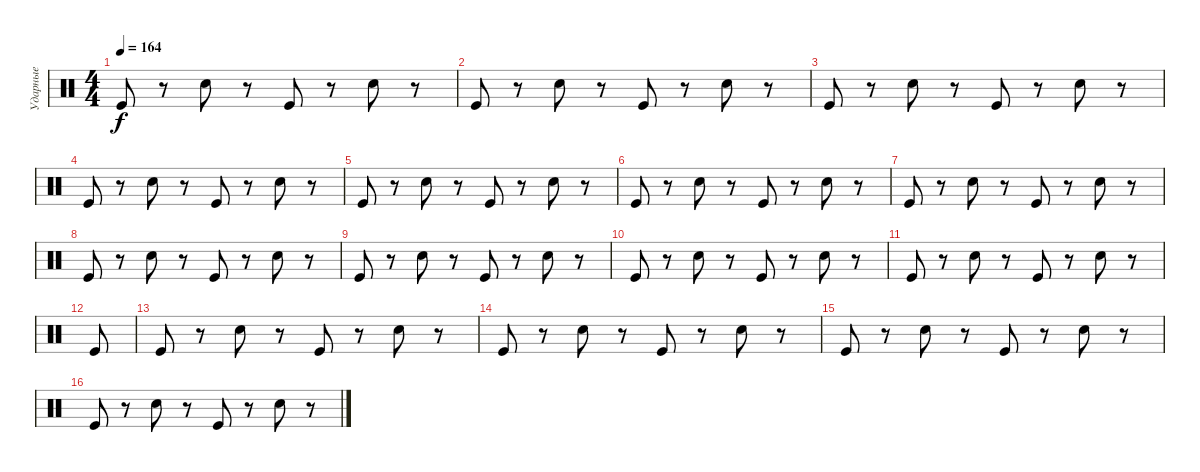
\track ("Ударные" "Ударные") {instrument percussion}
\staff {score}
\articulation defaults
\ts (4 4)
\tempo 164
\clef neutral
\ks c "Kick (hit)".8{dy f}
r.8 "Snare (hit) 2".8 r.8 "Kick (hit)".8 r.8 "Snare (hit) 2".8 r.8 |
"Kick (hit)".8 r.8 "Snare (hit) 2".8 r.8 "Kick (hit)".8 r.8 "Snare (hit) 2".8 r.8 |
"Kick (hit)".8 r.8 "Snare (hit) 2".8 r.8 "Kick (hit)".8 r.8 "Snare (hit) 2".8 r.8 |
"Kick (hit)".8 r.8 "Snare (hit) 2".8 r.8 "Kick (hit)".8 r.8 "Snare (hit) 2".8 r.8 |
"Kick (hit)".8 r.8 "Snare (hit) 2".8 r.8 "Kick (hit)".8 r.8 "Snare (hit) 2".8 r.8 |
"Kick (hit)".8 r.8 "Snare (hit) 2".8 r.8 "Kick (hit)".8 r.8 "Snare (hit) 2".8 r.8 |
"Kick (hit)".8 r.8 "Snare (hit) 2".8 r.8 "Kick (hit)".8 r.8 "Snare (hit) 2".8 r.8 |
"Kick (hit)".8 r.8 "Snare (hit) 2".8 r.8 "Kick (hit)".8 r.8 "Snare (hit) 2".8 r.8 |
"Kick (hit)".8 r.8 "Snare (hit) 2".8 r.8 "Kick (hit)".8 r.8 "Snare (hit) 2".8 r.8 |
"Kick (hit)".8 r.8 "Snare (hit) 2".8 r.8 "Kick (hit)".8 r.8 "Snare (hit) 2".8 r.8 |
"Kick (hit)".8 r.8 "Snare (hit) 2".8 r.8 "Kick (hit)".8 r.8 "Snare (hit) 2".8 r.8 |
"Kick (hit)".8 |
"Kick (hit)".8 r.8 "Snare (hit) 2".8 r.8 "Kick (hit)".8 r.8 "Snare (hit) 2".8 r.8 |
"Kick (hit)".8 r.8 "Snare (hit) 2".8 r.8 "Kick (hit)".8 r.8 "Snare (hit) 2".8 r.8 |
"Kick (hit)".8 r.8 "Snare (hit) 2".8 r.8 "Kick (hit)".8 r.8 "Snare (hit) 2".8 r.8 |
"Kick (hit)".8 r.8 "Snare (hit) 2".8 r.8 "Kick (hit)".8 r.8 "Snare (hit) 2".8 r.8
